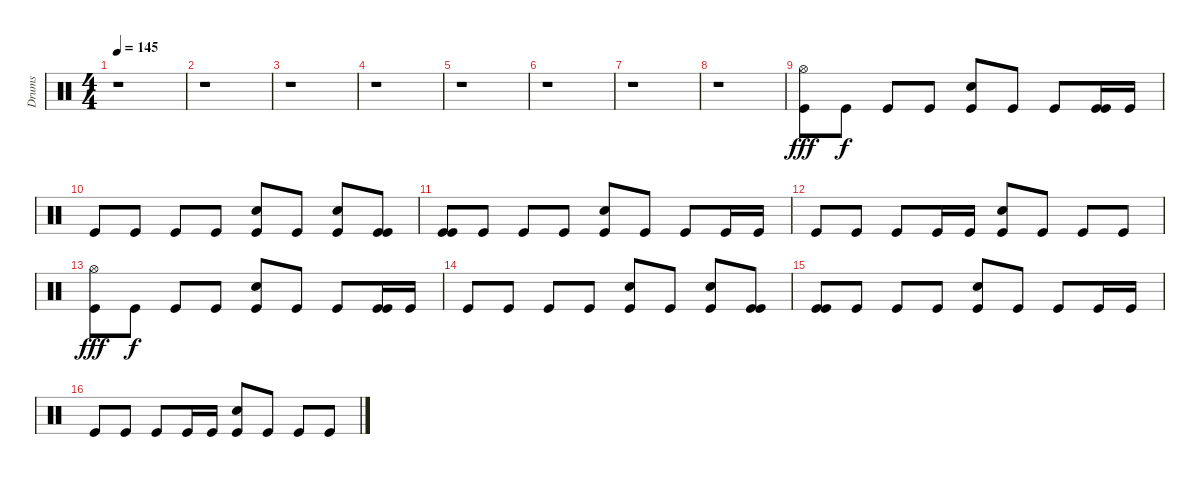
\track ("Drums" "Drums") {instrument percussion}
\staff {score}
\articulation defaults
\ts (4 4)
\tempo 145
\clef neutral
\ks c
r.1{dy fff} |
r.1 |
r.1 |
r.1 |
r.1 |
r.1 |
r.1 |
r.1 |
("Hi-Hat (open)" "Kick (hit)").8 "Kick (hit)".8{dy f} "Kick (hit)".8 "Kick (hit)".8 ("Snare (hit) 2" "Kick (hit)").8 "Kick (hit)".8 "Kick (hit)".8 ("Kick (hit)" "Kick (hit)").16 "Kick (hit)".16 |
"Kick (hit)".8 "Kick (hit)".8 "Kick (hit)".8 "Kick (hit)".8 ("Snare (hit) 2" "Kick (hit)").8 "Kick (hit)".8 ("Snare (hit) 2" "Kick (hit)").8 ("Kick (hit)" "Kick (hit)").8 |
("Kick (hit)" "Kick (hit)").8 "Kick (hit)".8 "Kick (hit)".8 "Kick (hit)".8 ("Snare (hit) 2" "Kick (hit)").8 "Kick (hit)".8 "Kick (hit)".8 "Kick (hit)".16 "Kick (hit)".16 |
"Kick (hit)".8 "Kick (hit)".8 "Kick (hit)".8 "Kick (hit)".16 "Kick (hit)".16 ("Snare (hit) 2" "Kick (hit)").8 "Kick (hit)".8 "Kick (hit)".8 "Kick (hit)".8 |
("Hi-Hat (open)" "Kick (hit)").8{dy fff} "Kick (hit)".8{dy f} "Kick (hit)".8 "Kick (hit)".8 ("Snare (hit) 2" "Kick (hit)").8 "Kick (hit)".8 "Kick (hit)".8 ("Kick (hit)" "Kick (hit)").16 "Kick (hit)".16 |
"Kick (hit)".8 "Kick (hit)".8 "Kick (hit)".8 "Kick (hit)".8 ("Snare (hit) 2" "Kick (hit)").8 "Kick (hit)".8 ("Snare (hit) 2" "Kick (hit)").8 ("Kick (hit)" "Kick (hit)").8 |
("Kick (hit)" "Kick (hit)").8 "Kick (hit)".8 "Kick (hit)".8 "Kick (hit)".8 ("Snare (hit) 2" "Kick (hit)").8 "Kick (hit)".8 "Kick (hit)".8 "Kick (hit)".16 "Kick (hit)".16 |
"Kick (hit)".8 "Kick (hit)".8 "Kick (hit)".8 "Kick (hit)".16 "Kick (hit)".16 ("Snare (hit) 2" "Kick (hit)").8 "Kick (hit)".8 "Kick (hit)".8 "Kick (hit)".8
